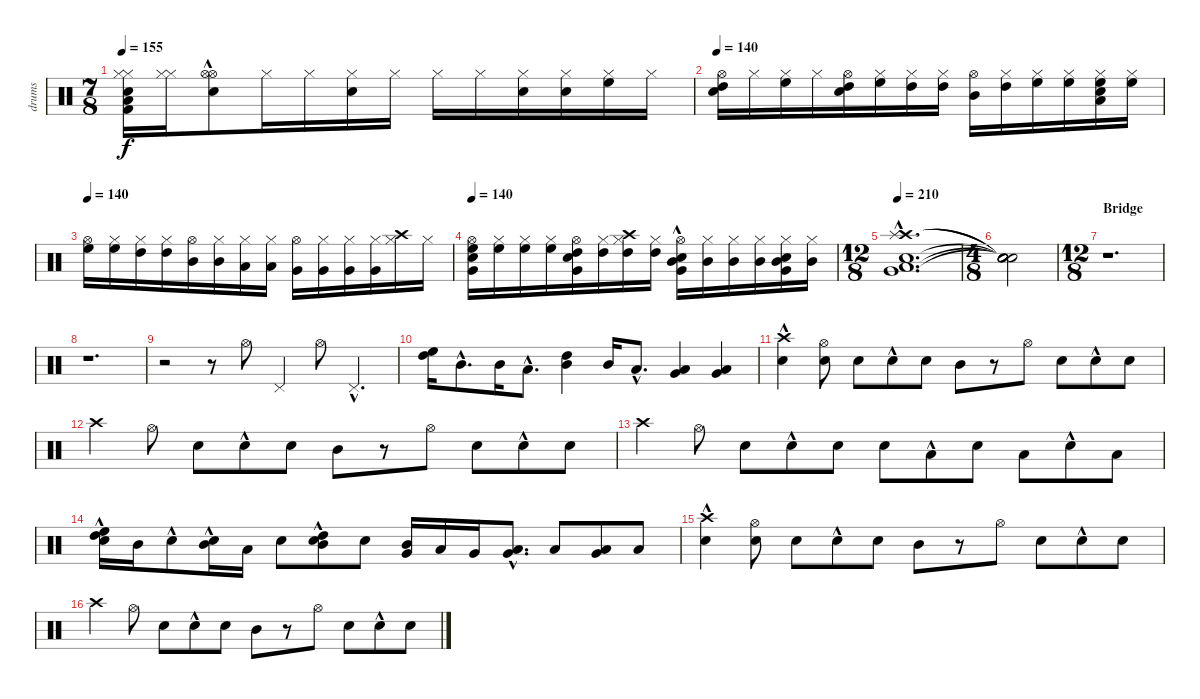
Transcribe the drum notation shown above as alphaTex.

\track ("drums" "drums") {instrument percussion}
\staff {score}
\articulation defaults
\ts (7 8)
\tempo 155
\clef neutral
\ks c
("Hi-Hat (closed)" "Electric Snare (hit)" "Kick (hit) 2" "Hi-Hat (closed)" "Low Floor Tom (hit)").16{dy f} ("Hi-Hat (closed)" "Hi-Hat (closed)").16 ("Electric Snare (hit)" "Hi-Hat (open)"{hac} "Hi-Hat (open)"{hac}).8 "Hi-Hat (closed)".16 "Hi-Hat (closed)".16 ("Hi-Hat (closed)" "Electric Snare (hit)").16 "Hi-Hat (closed)".16 "Hi-Hat (closed)".16 "Hi-Hat (closed)".16 ("Hi-Hat (closed)" "Electric Snare (hit)").16 ("Hi-Hat (closed)" "Electric Snare (hit)").16 ("Hi-Hat (closed)" "High Floor Tom (hit)").16 "Hi-Hat (closed)".16 |
\tempo 140
("Electric Snare (hit)" "Hi-Hat (open)" "High Tom (hit)").16 "Hi-Hat (closed)".16 ("Hi-Hat (closed)" "High Floor Tom (hit)").16 "Hi-Hat (closed)".16 ("High Tom (hit)" "Electric Snare (hit)" "Hi-Hat (open)").16 ("Hi-Hat (closed)" "High Floor Tom (hit)").16 ("Hi-Hat (closed)" "High Tom (hit)").16 ("Hi-Hat (closed)" "High Tom (hit)").16 ("Mid Tom (hit)" "Hi-Hat (open)").16 ("Hi-Hat (closed)" "High Tom (hit)").16 ("Hi-Hat (closed)" "High Floor Tom (hit)").16 ("Hi-Hat (closed)" "High Floor Tom (hit)").16 ("Hi-Hat (closed)" "Low Tom (hit)" "Electric Snare (hit)" "High Floor Tom (hit)").16 ("Hi-Hat (closed)" "High Floor Tom (hit)").16 |
\tempo 140
("Hi-Hat (open)" "High Floor Tom (hit)").16 ("Hi-Hat (closed)" "High Floor Tom (hit)").16 ("Hi-Hat (closed)" "High Tom (hit)").16 ("Hi-Hat (closed)" "High Tom (hit)").16 ("Mid Tom (hit)" "Hi-Hat (open)").16 ("Hi-Hat (closed)" "Mid Tom (hit)").16 ("Hi-Hat (closed)" "Low Tom (hit)").16 ("Hi-Hat (closed)" "Low Tom (hit)").16 ("Very Low Tom (hit)" "Hi-Hat (open)").16 ("Hi-Hat (closed)" "Very Low Tom (hit)").16 ("Hi-Hat (closed)" "Very Low Tom (hit)").16 ("Hi-Hat (closed)" "Very Low Tom (hit)").16 ("Hi-Hat (closed)" "Crash high (hit)").16 "Hi-Hat (closed)".16 |
\tempo 140
("Electric Snare (hit)" "Very Low Tom (hit)" "Hi-Hat (open)" "High Floor Tom (hit)").16 ("Hi-Hat (closed)" "High Floor Tom (hit)").16 ("Hi-Hat (closed)" "High Floor Tom (hit)").16 ("Hi-Hat (closed)" "High Floor Tom (hit)").16 ("Electric Snare (hit)" "Very Low Tom (hit)" "Hi-Hat (open)" "High Tom (hit)").16 ("Hi-Hat (closed)" "High Tom (hit)").16 ("Hi-Hat (closed)" "Crash high (hit)" "High Tom (hit)").16 ("Hi-Hat (closed)" "High Tom (hit)").16 ("Electric Snare (hit)" "Very Low Tom (hit)" "Hi-Hat (open)"{hac} "Mid Tom (hit)").16 ("Hi-Hat (closed)" "Mid Tom (hit)").16 ("Hi-Hat (closed)" "Mid Tom (hit)").16 ("Hi-Hat (closed)" "Mid Tom (hit)").16 ("Hi-Hat (closed)" "Electric Snare (hit)" "Very Low Tom (hit)" "Mid Tom (hit)").16 ("Hi-Hat (closed)" "Mid Tom (hit)").16 |
\ts (12 8)
\tempo 210
("Crash high (hit)"{hac} "Electric Snare (hit)" "Very Low Tom (hit)" "Low Tom (hit)" "Splash (hit)"{hac}).1{d} |
\ts (4 8)
("Snare (hit)"{t} "Snare (hit)"{t} "Snare (hit)"{t} "Snare (hit)"{t} "Snare (hit)"{t}).2 |
\ts (12 8)
\section ("" "Bridge")
r.1{d} |
r.1{d} |
r.2 r.8 "Hi-Hat (open)".8 "Pedal Hi-Hat (hit)".4 "Hi-Hat (open)".8 "Pedal Hi-Hat (hit)"{hac}.4{d} |
("High Tom (hit)" "High Floor Tom (hit)").16 "Mid Tom (hit)"{hac}.8{d} "Mid Tom (hit)".16 "Low Tom (hit)"{hac}.8{d} ("High Tom (hit)" "Mid Tom (hit)").4 "Mid Tom (hit)".16 "Low Tom (hit)"{hac}.8{d} ("Low Tom (hit)" "Very Low Tom (hit)").4 ("Very Low Tom (hit)" "Low Floor Tom (hit)").4 |
("Crash high (hit)" "Electric Snare (hit)"{hac}).4 ("Electric Snare (hit)" "Hi-Hat (open)").8 "Electric Snare (hit)".8 "Snare (hit) 2"{hac}.8 "Electric Snare (hit)".8 "Mid Tom (hit)".8 r.8 "Hi-Hat (open)".8 "Electric Snare (hit)".8 "Electric Snare (hit)"{hac}.8 "Snare (hit) 2".8 |
"Crash high (hit)".4 "Hi-Hat (open)".8 "Electric Snare (hit)".8 "Electric Snare (hit)"{hac}.8 "Snare (hit) 2".8 "Mid Tom (hit)".8 r.8 "Hi-Hat (open)".8 "Electric Snare (hit)".8 "Electric Snare (hit)"{hac}.8 "Snare (hit) 2".8 |
"Crash high (hit)".4 "Hi-Hat (open)".8 "Electric Snare (hit)".8 "Electric Snare (hit)"{hac}.8 "Snare (hit) 2".8 "Electric Snare (hit)".8 "Low Floor Tom (hit)"{hac}.8 "Electric Snare (hit)".8 "Low Floor Tom (hit)".8 "Electric Snare (hit)"{hac}.8 "Low Floor Tom (hit)".8 |
("High Tom (hit)" "Electric Snare (hit)"{hac} "High Floor Tom (hit)").16 "Mid Tom (hit)".16 "Electric Snare (hit)"{hac}.8 ("Mid Tom (hit)" "Electric Snare (hit)"{hac}).16 "Low Tom (hit)".16 "Snare (hit) 2".8 ("High Tom (hit)" "Snare (hit) 2"{hac} "Mid Tom (hit)").8 "Snare (hit) 2".8 ("Mid Tom (hit)" "Very Low Tom (hit)").16 "Low Tom (hit)".16 "Very Low Tom (hit)".16 ("Low Tom (hit)"{hac} "Very Low Tom (hit)"{hac}).8{d} "Low Floor Tom (hit)".8 ("Very Low Tom (hit)" "Low Floor Tom (hit)").8 "Low Floor Tom (hit)".8 |
("Electric Snare (hit)"{hac} "Crash high (hit)").4 ("Electric Snare (hit)" "Hi-Hat (open)").8 "Electric Snare (hit)".8 "Snare (hit) 2"{hac}.8 "Electric Snare (hit)".8 "Mid Tom (hit)".8 r.8 "Hi-Hat (open)".8 "Electric Snare (hit)".8 "Electric Snare (hit)"{hac}.8 "Snare (hit) 2".8 |
"Crash high (hit)".4 "Hi-Hat (open)".8 "Electric Snare (hit)".8 "Electric Snare (hit)"{hac}.8 "Snare (hit) 2".8 "Mid Tom (hit)".8 r.8 "Hi-Hat (open)".8 "Electric Snare (hit)".8 "Electric Snare (hit)"{hac}.8 "Snare (hit) 2".8
